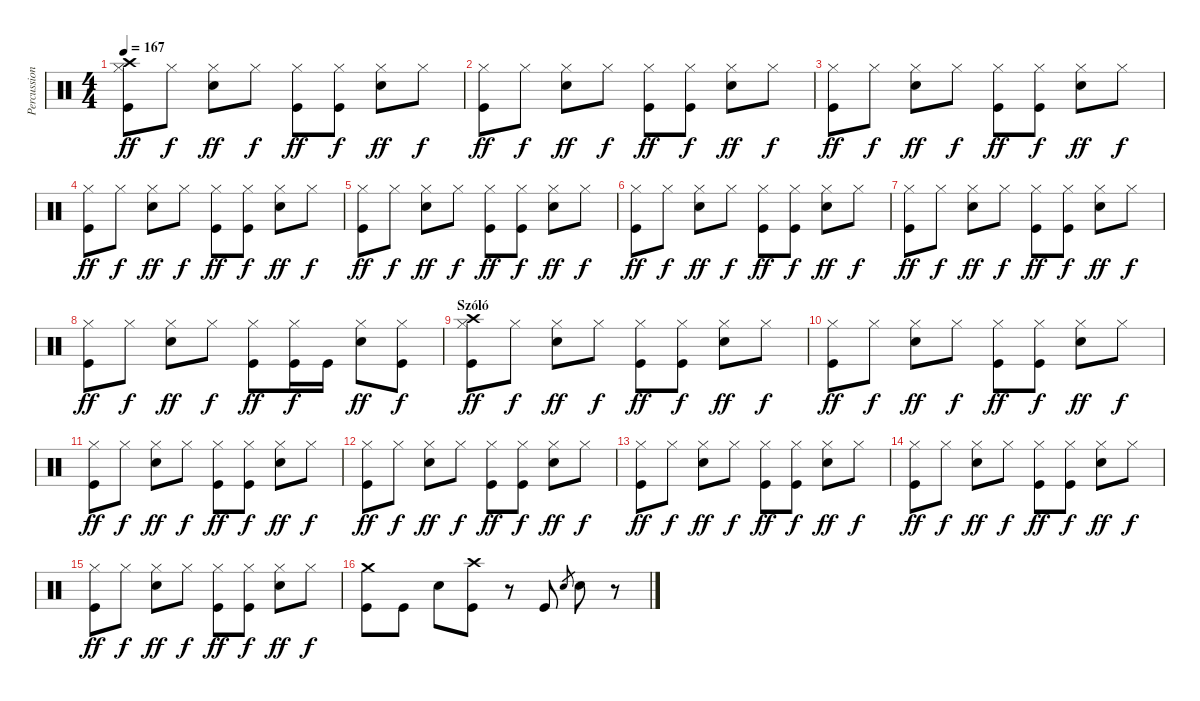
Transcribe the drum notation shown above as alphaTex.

\track ("Percussion" "Percussion") {instrument percussion}
\staff {score}
\articulation defaults
\ts (4 4)
\tempo 167
\clef neutral
\ks c
("Hi-Hat (closed)" "Kick (hit)" "Crash high (hit)").8{dy ff} "Hi-Hat (closed)".8{dy f} ("Hi-Hat (closed)" "Electric Snare (hit)").8{dy ff} "Hi-Hat (closed)".8{dy f} ("Hi-Hat (closed)" "Kick (hit)").8{dy ff} ("Hi-Hat (closed)" "Kick (hit)").8{dy f} ("Hi-Hat (closed)" "Electric Snare (hit)").8{dy ff} "Hi-Hat (closed)".8{dy f} |
("Hi-Hat (closed)" "Kick (hit)").8{dy ff} "Hi-Hat (closed)".8{dy f} ("Hi-Hat (closed)" "Electric Snare (hit)").8{dy ff} "Hi-Hat (closed)".8{dy f} ("Hi-Hat (closed)" "Kick (hit)").8{dy ff} ("Hi-Hat (closed)" "Kick (hit)").8{dy f} ("Hi-Hat (closed)" "Electric Snare (hit)").8{dy ff} "Hi-Hat (closed)".8{dy f} |
("Hi-Hat (closed)" "Kick (hit)").8{dy ff} "Hi-Hat (closed)".8{dy f} ("Hi-Hat (closed)" "Electric Snare (hit)").8{dy ff} "Hi-Hat (closed)".8{dy f} ("Hi-Hat (closed)" "Kick (hit)").8{dy ff} ("Hi-Hat (closed)" "Kick (hit)").8{dy f} ("Hi-Hat (closed)" "Electric Snare (hit)").8{dy ff} "Hi-Hat (closed)".8{dy f} |
("Hi-Hat (closed)" "Kick (hit)").8{dy ff} "Hi-Hat (closed)".8{dy f} ("Hi-Hat (closed)" "Electric Snare (hit)").8{dy ff} "Hi-Hat (closed)".8{dy f} ("Hi-Hat (closed)" "Kick (hit)").8{dy ff} ("Hi-Hat (closed)" "Kick (hit)").8{dy f} ("Hi-Hat (closed)" "Electric Snare (hit)").8{dy ff} "Hi-Hat (closed)".8{dy f} |
("Hi-Hat (closed)" "Kick (hit)").8{dy ff} "Hi-Hat (closed)".8{dy f} ("Hi-Hat (closed)" "Electric Snare (hit)").8{dy ff} "Hi-Hat (closed)".8{dy f} ("Hi-Hat (closed)" "Kick (hit)").8{dy ff} ("Hi-Hat (closed)" "Kick (hit)").8{dy f} ("Hi-Hat (closed)" "Electric Snare (hit)").8{dy ff} "Hi-Hat (closed)".8{dy f} |
("Hi-Hat (closed)" "Kick (hit)").8{dy ff} "Hi-Hat (closed)".8{dy f} ("Hi-Hat (closed)" "Electric Snare (hit)").8{dy ff} "Hi-Hat (closed)".8{dy f} ("Hi-Hat (closed)" "Kick (hit)").8{dy ff} ("Hi-Hat (closed)" "Kick (hit)").8{dy f} ("Hi-Hat (closed)" "Electric Snare (hit)").8{dy ff} "Hi-Hat (closed)".8{dy f} |
("Hi-Hat (closed)" "Kick (hit)").8{dy ff} "Hi-Hat (closed)".8{dy f} ("Hi-Hat (closed)" "Electric Snare (hit)").8{dy ff} "Hi-Hat (closed)".8{dy f} ("Hi-Hat (closed)" "Kick (hit)").8{dy ff} ("Hi-Hat (closed)" "Kick (hit)").8{dy f} ("Hi-Hat (closed)" "Electric Snare (hit)").8{dy ff} "Hi-Hat (closed)".8{dy f} |
("Hi-Hat (closed)" "Kick (hit)").8{dy ff} "Hi-Hat (closed)".8{dy f} ("Hi-Hat (closed)" "Electric Snare (hit)").8{dy ff} "Hi-Hat (closed)".8{dy f} ("Hi-Hat (closed)" "Kick (hit)").8{dy ff} ("Hi-Hat (closed)" "Kick (hit)").16{dy f} "Kick (hit)".16 ("Hi-Hat (closed)" "Electric Snare (hit)").8{dy ff} ("Hi-Hat (closed)" "Kick (hit)").8{dy f} |
\section ("" "Szóló")
("Hi-Hat (closed)" "Kick (hit)" "Crash high (hit)").8{dy ff} "Hi-Hat (closed)".8{dy f} ("Hi-Hat (closed)" "Electric Snare (hit)").8{dy ff} "Hi-Hat (closed)".8{dy f} ("Hi-Hat (closed)" "Kick (hit)").8{dy ff} ("Hi-Hat (closed)" "Kick (hit)").8{dy f} ("Hi-Hat (closed)" "Electric Snare (hit)").8{dy ff} "Hi-Hat (closed)".8{dy f} |
("Hi-Hat (closed)" "Kick (hit)").8{dy ff} "Hi-Hat (closed)".8{dy f} ("Hi-Hat (closed)" "Electric Snare (hit)").8{dy ff} "Hi-Hat (closed)".8{dy f} ("Hi-Hat (closed)" "Kick (hit)").8{dy ff} ("Hi-Hat (closed)" "Kick (hit)").8{dy f} ("Hi-Hat (closed)" "Electric Snare (hit)").8{dy ff} "Hi-Hat (closed)".8{dy f} |
("Hi-Hat (closed)" "Kick (hit)").8{dy ff} "Hi-Hat (closed)".8{dy f} ("Hi-Hat (closed)" "Electric Snare (hit)").8{dy ff} "Hi-Hat (closed)".8{dy f} ("Hi-Hat (closed)" "Kick (hit)").8{dy ff} ("Hi-Hat (closed)" "Kick (hit)").8{dy f} ("Hi-Hat (closed)" "Electric Snare (hit)").8{dy ff} "Hi-Hat (closed)".8{dy f} |
("Hi-Hat (closed)" "Kick (hit)").8{dy ff} "Hi-Hat (closed)".8{dy f} ("Hi-Hat (closed)" "Electric Snare (hit)").8{dy ff} "Hi-Hat (closed)".8{dy f} ("Hi-Hat (closed)" "Kick (hit)").8{dy ff} ("Hi-Hat (closed)" "Kick (hit)").8{dy f} ("Hi-Hat (closed)" "Electric Snare (hit)").8{dy ff} "Hi-Hat (closed)".8{dy f} |
("Hi-Hat (closed)" "Kick (hit)").8{dy ff} "Hi-Hat (closed)".8{dy f} ("Hi-Hat (closed)" "Electric Snare (hit)").8{dy ff} "Hi-Hat (closed)".8{dy f} ("Hi-Hat (closed)" "Kick (hit)").8{dy ff} ("Hi-Hat (closed)" "Kick (hit)").8{dy f} ("Hi-Hat (closed)" "Electric Snare (hit)").8{dy ff} "Hi-Hat (closed)".8{dy f} |
("Hi-Hat (closed)" "Kick (hit)").8{dy ff} "Hi-Hat (closed)".8{dy f} ("Hi-Hat (closed)" "Electric Snare (hit)").8{dy ff} "Hi-Hat (closed)".8{dy f} ("Hi-Hat (closed)" "Kick (hit)").8{dy ff} ("Hi-Hat (closed)" "Kick (hit)").8{dy f} ("Hi-Hat (closed)" "Electric Snare (hit)").8{dy ff} "Hi-Hat (closed)".8{dy f} |
("Hi-Hat (closed)" "Kick (hit)").8{dy ff} "Hi-Hat (closed)".8{dy f} ("Hi-Hat (closed)" "Electric Snare (hit)").8{dy ff} "Hi-Hat (closed)".8{dy f} ("Hi-Hat (closed)" "Kick (hit)").8{dy ff} ("Hi-Hat (closed)" "Kick (hit)").8{dy f} ("Hi-Hat (closed)" "Electric Snare (hit)").8{dy ff} "Hi-Hat (closed)".8{dy f} |
("Crash medium (hit)" "Kick (hit)").8 "Kick (hit)".8 "Electric Snare (hit)".8 ("Crash high (hit)" "Kick (hit)").8 r.8 "Kick (hit)".8 "Electric Snare (hit)".8{gr} "Electric Snare (hit)".8 r.8
